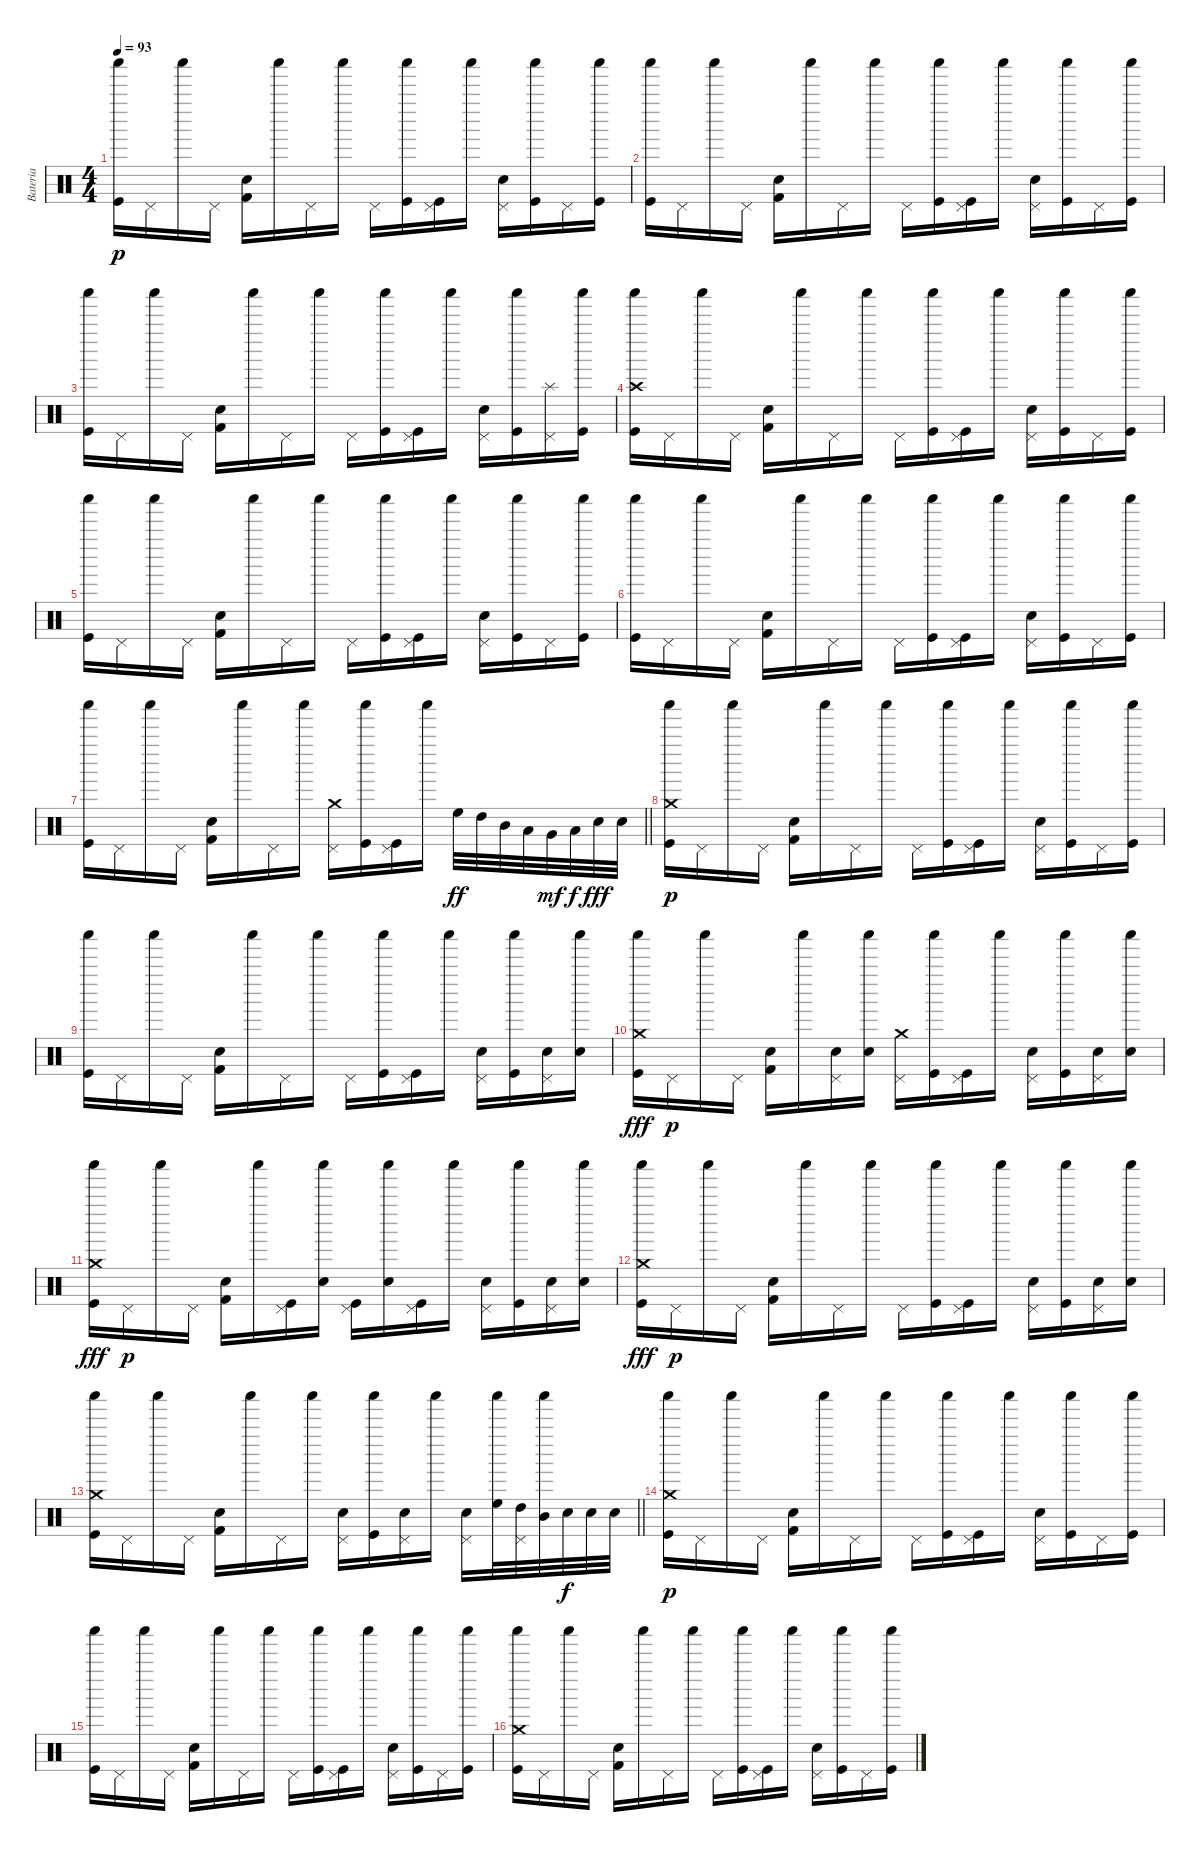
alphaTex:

\track ("Bateria" "Bateria") {instrument percussion}
\staff {score}
\articulation defaults
\ts (4 4)
\tempo 93
\clef neutral
\ks c
("Kick (hit)" "Shaker (hit)").16{dy p} "Pedal Hi-Hat (hit)".16 "Shaker (hit)".16 "Pedal Hi-Hat (hit)".16 ("Electric Snare (hit)" "Kick (hit) 2").16 "Shaker (hit)".16 "Pedal Hi-Hat (hit)".16 "Shaker (hit)".16 "Pedal Hi-Hat (hit)".16 ("Kick (hit)" "Shaker (hit)").16 ("Kick (hit)" "Pedal Hi-Hat (hit)").16 "Shaker (hit)".16 ("Electric Snare (hit)" "Pedal Hi-Hat (hit)").16 ("Kick (hit)" "Shaker (hit)").16 "Pedal Hi-Hat (hit)".16 ("Kick (hit)" "Shaker (hit)").16 |
("Kick (hit)" "Shaker (hit)").16 "Pedal Hi-Hat (hit)".16 "Shaker (hit)".16 "Pedal Hi-Hat (hit)".16 ("Electric Snare (hit)" "Kick (hit) 2").16 "Shaker (hit)".16 "Pedal Hi-Hat (hit)".16 "Shaker (hit)".16 "Pedal Hi-Hat (hit)".16 ("Kick (hit)" "Shaker (hit)").16 ("Kick (hit)" "Pedal Hi-Hat (hit)").16 "Shaker (hit)".16 ("Electric Snare (hit)" "Pedal Hi-Hat (hit)").16 ("Kick (hit)" "Shaker (hit)").16 "Pedal Hi-Hat (hit)".16 ("Kick (hit)" "Shaker (hit)").16 |
("Kick (hit)" "Shaker (hit)").16 "Pedal Hi-Hat (hit)".16 "Shaker (hit)".16 "Pedal Hi-Hat (hit)".16 ("Electric Snare (hit)" "Kick (hit) 2").16 "Shaker (hit)".16 "Pedal Hi-Hat (hit)".16 "Shaker (hit)".16 "Pedal Hi-Hat (hit)".16 ("Kick (hit)" "Shaker (hit)").16 ("Kick (hit)" "Pedal Hi-Hat (hit)").16 "Shaker (hit)".16 ("Electric Snare (hit)" "Pedal Hi-Hat (hit)").16 ("Kick (hit)" "Shaker (hit)").16 ("Pedal Hi-Hat (hit)" "Splash (hit)").16 ("Kick (hit)" "Shaker (hit)").16 |
("Kick (hit)" "Shaker (hit)" "Crash high (hit)").16 "Pedal Hi-Hat (hit)".16 "Shaker (hit)".16 "Pedal Hi-Hat (hit)".16 ("Electric Snare (hit)" "Kick (hit) 2").16 "Shaker (hit)".16 "Pedal Hi-Hat (hit)".16 "Shaker (hit)".16 "Pedal Hi-Hat (hit)".16 ("Kick (hit)" "Shaker (hit)").16 ("Kick (hit)" "Pedal Hi-Hat (hit)").16 "Shaker (hit)".16 ("Electric Snare (hit)" "Pedal Hi-Hat (hit)").16 ("Kick (hit)" "Shaker (hit)").16 "Pedal Hi-Hat (hit)".16 ("Kick (hit)" "Shaker (hit)").16 |
("Kick (hit)" "Shaker (hit)").16 "Pedal Hi-Hat (hit)".16 "Shaker (hit)".16 "Pedal Hi-Hat (hit)".16 ("Electric Snare (hit)" "Kick (hit) 2").16 "Shaker (hit)".16 "Pedal Hi-Hat (hit)".16 "Shaker (hit)".16 "Pedal Hi-Hat (hit)".16 ("Kick (hit)" "Shaker (hit)").16 ("Kick (hit)" "Pedal Hi-Hat (hit)").16 "Shaker (hit)".16 ("Electric Snare (hit)" "Pedal Hi-Hat (hit)").16 ("Kick (hit)" "Shaker (hit)").16 "Pedal Hi-Hat (hit)".16 ("Kick (hit)" "Shaker (hit)").16 |
("Kick (hit)" "Shaker (hit)").16 "Pedal Hi-Hat (hit)".16 "Shaker (hit)".16 "Pedal Hi-Hat (hit)".16 ("Electric Snare (hit)" "Kick (hit) 2").16 "Shaker (hit)".16 "Pedal Hi-Hat (hit)".16 "Shaker (hit)".16 "Pedal Hi-Hat (hit)".16 ("Kick (hit)" "Shaker (hit)").16 ("Kick (hit)" "Pedal Hi-Hat (hit)").16 "Shaker (hit)".16 ("Electric Snare (hit)" "Pedal Hi-Hat (hit)").16 ("Kick (hit)" "Shaker (hit)").16 "Pedal Hi-Hat (hit)".16 ("Kick (hit)" "Shaker (hit)").16 |
\barLineRight lightlight
("Kick (hit)" "Shaker (hit)").16 "Pedal Hi-Hat (hit)".16 "Shaker (hit)".16 "Pedal Hi-Hat (hit)".16 ("Electric Snare (hit)" "Kick (hit) 2").16 "Shaker (hit)".16 "Pedal Hi-Hat (hit)".16 "Shaker (hit)".16 ("Crash medium (hit)" "Pedal Hi-Hat (hit)").16 ("Kick (hit)" "Shaker (hit)").16 ("Kick (hit)" "Pedal Hi-Hat (hit)").16 "Shaker (hit)".16 "High Floor Tom (hit)".32{dy ff} "High Tom (hit)".32 "Mid Tom (hit)".32 "Low Tom (hit)".32 "Very Low Tom (hit)".32{dy mf} "Low Floor Tom (hit)".32{dy f} "Electric Snare (hit)".32{dy fff} "Electric Snare (hit)".32 |
("Kick (hit)" "Shaker (hit)" "Crash medium (hit)").16{dy p} "Pedal Hi-Hat (hit)".16 "Shaker (hit)".16 "Pedal Hi-Hat (hit)".16 ("Electric Snare (hit)" "Kick (hit) 2").16 "Shaker (hit)".16 "Pedal Hi-Hat (hit)".16 "Shaker (hit)".16 "Pedal Hi-Hat (hit)".16 ("Kick (hit)" "Shaker (hit)").16 ("Kick (hit)" "Pedal Hi-Hat (hit)").16 "Shaker (hit)".16 ("Electric Snare (hit)" "Pedal Hi-Hat (hit)").16 ("Kick (hit)" "Shaker (hit)").16 "Pedal Hi-Hat (hit)".16 ("Kick (hit)" "Shaker (hit)").16 |
("Kick (hit)" "Shaker (hit)").16 "Pedal Hi-Hat (hit)".16 "Shaker (hit)".16 "Pedal Hi-Hat (hit)".16 ("Electric Snare (hit)" "Kick (hit) 2").16 "Shaker (hit)".16 "Pedal Hi-Hat (hit)".16 "Shaker (hit)".16 "Pedal Hi-Hat (hit)".16 ("Kick (hit)" "Shaker (hit)").16 ("Kick (hit)" "Pedal Hi-Hat (hit)").16 "Shaker (hit)".16 ("Electric Snare (hit)" "Pedal Hi-Hat (hit)").16 ("Kick (hit)" "Shaker (hit)").16 ("Electric Snare (hit)" "Pedal Hi-Hat (hit)").16 ("Electric Snare (hit)" "Shaker (hit)").16 |
("Kick (hit)" "Shaker (hit)" "Crash medium (hit)").16{dy fff} "Pedal Hi-Hat (hit)".16{dy p} "Shaker (hit)".16 "Pedal Hi-Hat (hit)".16 ("Electric Snare (hit)" "Kick (hit) 2").16 "Shaker (hit)".16 ("Electric Snare (hit)" "Pedal Hi-Hat (hit)").16 ("Electric Snare (hit)" "Shaker (hit)").16 ("Crash medium (hit)" "Pedal Hi-Hat (hit)").16 ("Kick (hit)" "Shaker (hit)").16 ("Kick (hit)" "Pedal Hi-Hat (hit)").16 "Shaker (hit)".16 ("Electric Snare (hit)" "Pedal Hi-Hat (hit)").16 ("Kick (hit)" "Shaker (hit)").16 ("Electric Snare (hit)" "Pedal Hi-Hat (hit)").16 ("Electric Snare (hit)" "Shaker (hit)").16 |
("Kick (hit)" "Shaker (hit)" "Crash medium (hit)").16{dy fff} "Pedal Hi-Hat (hit)".16{dy p} "Shaker (hit)".16 "Pedal Hi-Hat (hit)".16 ("Electric Snare (hit)" "Kick (hit) 2").16 "Shaker (hit)".16 ("Kick (hit)" "Pedal Hi-Hat (hit)").16 ("Electric Snare (hit)" "Shaker (hit)").16 ("Kick (hit)" "Pedal Hi-Hat (hit)").16 ("Electric Snare (hit)" "Shaker (hit)").16 ("Kick (hit)" "Pedal Hi-Hat (hit)").16 "Shaker (hit)".16 ("Electric Snare (hit)" "Pedal Hi-Hat (hit)").16 ("Kick (hit)" "Shaker (hit)").16 ("Electric Snare (hit)" "Pedal Hi-Hat (hit)").16 ("Electric Snare (hit)" "Shaker (hit)").16 |
("Kick (hit)" "Shaker (hit)" "Crash medium (hit)").16{dy fff} "Pedal Hi-Hat (hit)".16{dy p} "Shaker (hit)".16 "Pedal Hi-Hat (hit)".16 ("Electric Snare (hit)" "Kick (hit) 2").16 "Shaker (hit)".16 "Pedal Hi-Hat (hit)".16 "Shaker (hit)".16 "Pedal Hi-Hat (hit)".16 ("Kick (hit)" "Shaker (hit)").16 ("Kick (hit)" "Pedal Hi-Hat (hit)").16 "Shaker (hit)".16 ("Electric Snare (hit)" "Pedal Hi-Hat (hit)").16 ("Kick (hit)" "Shaker (hit)").16 ("Electric Snare (hit)" "Pedal Hi-Hat (hit)").16 ("Electric Snare (hit)" "Shaker (hit)").16 |
\barLineRight lightlight
("Kick (hit)" "Shaker (hit)" "Crash medium (hit)").16 "Pedal Hi-Hat (hit)".16 "Shaker (hit)".16 "Pedal Hi-Hat (hit)".16 ("Electric Snare (hit)" "Kick (hit) 2").16 "Shaker (hit)".16 "Pedal Hi-Hat (hit)".16 "Shaker (hit)".16 ("Electric Snare (hit)" "Pedal Hi-Hat (hit)").16 ("Kick (hit)" "Shaker (hit)").16 ("Electric Snare (hit)" "Pedal Hi-Hat (hit)").16 "Shaker (hit)".16 ("Electric Snare (hit)" "Pedal Hi-Hat (hit)").16 ("High Floor Tom (hit)" "Shaker (hit)").32 ("High Tom (hit)" "Pedal Hi-Hat (hit)").32 ("Mid Tom (hit)" "Shaker (hit)").32 "Electric Snare (hit)".32{dy f} "Electric Snare (hit)".32 "Electric Snare (hit)".32 |
("Kick (hit)" "Shaker (hit)" "Crash medium (hit)").16{dy p} "Pedal Hi-Hat (hit)".16 "Shaker (hit)".16 "Pedal Hi-Hat (hit)".16 ("Electric Snare (hit)" "Kick (hit) 2").16 "Shaker (hit)".16 "Pedal Hi-Hat (hit)".16 "Shaker (hit)".16 "Pedal Hi-Hat (hit)".16 ("Kick (hit)" "Shaker (hit)").16 ("Kick (hit)" "Pedal Hi-Hat (hit)").16 "Shaker (hit)".16 ("Electric Snare (hit)" "Pedal Hi-Hat (hit)").16 ("Kick (hit)" "Shaker (hit)").16 "Pedal Hi-Hat (hit)".16 ("Kick (hit)" "Shaker (hit)").16 |
("Kick (hit)" "Shaker (hit)").16 "Pedal Hi-Hat (hit)".16 "Shaker (hit)".16 "Pedal Hi-Hat (hit)".16 ("Electric Snare (hit)" "Kick (hit) 2").16 "Shaker (hit)".16 "Pedal Hi-Hat (hit)".16 "Shaker (hit)".16 "Pedal Hi-Hat (hit)".16 ("Kick (hit)" "Shaker (hit)").16 ("Kick (hit)" "Pedal Hi-Hat (hit)").16 "Shaker (hit)".16 ("Electric Snare (hit)" "Pedal Hi-Hat (hit)").16 ("Kick (hit)" "Shaker (hit)").16 "Pedal Hi-Hat (hit)".16 ("Kick (hit)" "Shaker (hit)").16 |
("Kick (hit)" "Shaker (hit)" "Crash medium (hit)").16 "Pedal Hi-Hat (hit)".16 "Shaker (hit)".16 "Pedal Hi-Hat (hit)".16 ("Electric Snare (hit)" "Kick (hit) 2").16 "Shaker (hit)".16 "Pedal Hi-Hat (hit)".16 "Shaker (hit)".16 "Pedal Hi-Hat (hit)".16 ("Kick (hit)" "Shaker (hit)").16 ("Kick (hit)" "Pedal Hi-Hat (hit)").16 "Shaker (hit)".16 ("Electric Snare (hit)" "Pedal Hi-Hat (hit)").16 ("Kick (hit)" "Shaker (hit)").16 "Pedal Hi-Hat (hit)".16 ("Kick (hit)" "Shaker (hit)").16
